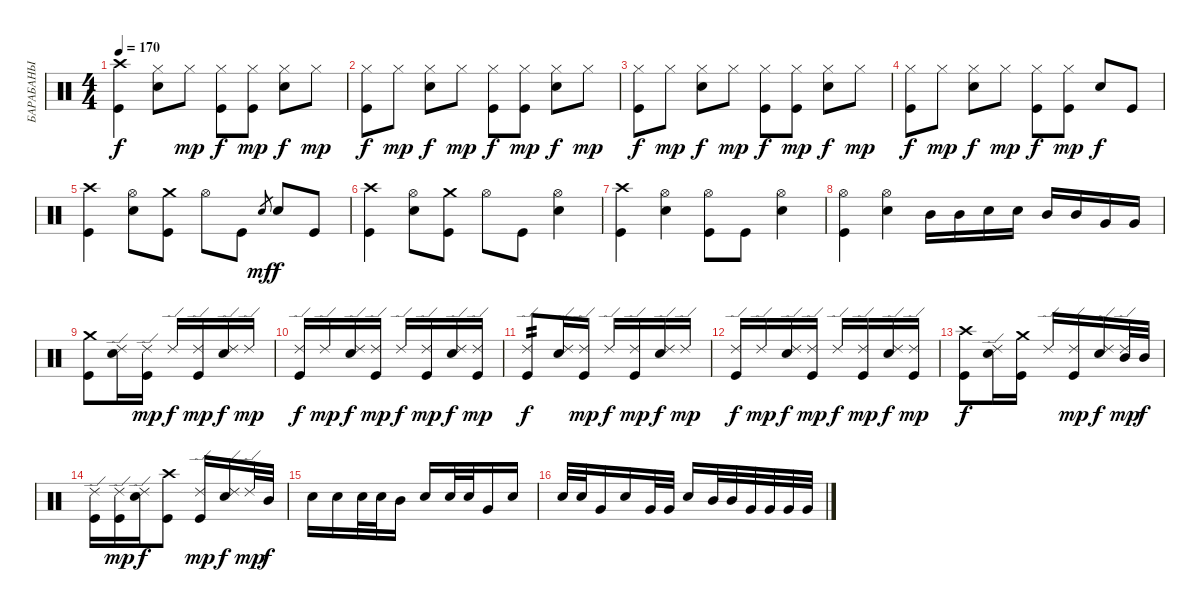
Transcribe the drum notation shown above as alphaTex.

\track ("БАРАБАНЫ" "БАРАБАНЫ") {instrument percussion}
\staff {score}
\articulation defaults
\ts (4 4)
\tempo 170
\clef neutral
\ks c
("Crash high (hit)" "Kick (hit)").4{dy f} ("Hi-Hat (closed)" "Electric Snare (hit)").8 "Hi-Hat (closed)".8{dy mp} ("Hi-Hat (closed)" "Kick (hit)").8{dy f} ("Hi-Hat (closed)" "Kick (hit)").8{dy mp} ("Hi-Hat (closed)" "Electric Snare (hit)").8{dy f} "Hi-Hat (closed)".8{dy mp} |
("Hi-Hat (closed)" "Kick (hit)").8{dy f} "Hi-Hat (closed)".8{dy mp} ("Hi-Hat (closed)" "Electric Snare (hit)").8{dy f} "Hi-Hat (closed)".8{dy mp} ("Hi-Hat (closed)" "Kick (hit)").8{dy f} ("Hi-Hat (closed)" "Kick (hit)").8{dy mp} ("Hi-Hat (closed)" "Electric Snare (hit)").8{dy f} "Hi-Hat (closed)".8{dy mp} |
("Hi-Hat (closed)" "Kick (hit)").8{dy f} "Hi-Hat (closed)".8{dy mp} ("Hi-Hat (closed)" "Electric Snare (hit)").8{dy f} "Hi-Hat (closed)".8{dy mp} ("Hi-Hat (closed)" "Kick (hit)").8{dy f} ("Hi-Hat (closed)" "Kick (hit)").8{dy mp} ("Hi-Hat (closed)" "Electric Snare (hit)").8{dy f} "Hi-Hat (closed)".8{dy mp} |
("Hi-Hat (closed)" "Kick (hit)").8{dy f} "Hi-Hat (closed)".8{dy mp} ("Hi-Hat (closed)" "Electric Snare (hit)").8{dy f} "Hi-Hat (closed)".8{dy mp} ("Hi-Hat (closed)" "Kick (hit)").8{dy f} ("Hi-Hat (closed)" "Kick (hit)").8{dy mp} "Electric Snare (hit)".8{dy f} "Kick (hit)".8 |
("Crash high (hit)" "Kick (hit)").4 ("Hi-Hat (open)" "Electric Snare (hit)").8 ("Crash medium (hit)" "Kick (hit)").8 "Hi-Hat (open)".8 "Kick (hit)".8 "Electric Snare (hit)".8{gr dy mf} "Electric Snare (hit)".8{dy f} "Kick (hit)".8 |
("Crash high (hit)" "Kick (hit)").4 ("Hi-Hat (open)" "Electric Snare (hit)").8 ("Crash medium (hit)" "Kick (hit)").8 "Hi-Hat (open)".8 "Kick (hit)".8 ("Hi-Hat (open)" "Electric Snare (hit)").4 |
("Crash high (hit)" "Kick (hit)").4 ("Hi-Hat (open)" "Electric Snare (hit)").4 ("Hi-Hat (open)" "Kick (hit)").8 "Kick (hit)".8 ("Hi-Hat (open)" "Electric Snare (hit)").4 |
("Hi-Hat (open)" "Kick (hit)").4 ("Hi-Hat (open)" "Electric Snare (hit)").4 "Mid Tom (hit)".16 "Mid Tom (hit)".16 "Electric Snare (hit)".16 "Electric Snare (hit)".16 "Mid Tom (hit)".16 "Mid Tom (hit)".16 "Very Low Tom (hit)".16 "Very Low Tom (hit)".16 |
("Crash medium (hit)" "Kick (hit)").8 ("Ride (edge) 2" "Electric Snare (hit)").16 ("Ride (edge) 2" "Kick (hit)").16{dy mp} "Ride (edge) 2".16{dy f} ("Ride (edge) 2" "Kick (hit)").16{dy mp} ("Ride (edge) 2" "Electric Snare (hit)").16{dy f} "Ride (edge) 2".16{dy mp} |
("Ride (edge) 2" "Kick (hit)").16{dy f} "Ride (edge) 2".16{dy mp} ("Ride (edge) 2" "Electric Snare (hit)").16{dy f} ("Ride (edge) 2" "Kick (hit)").16{dy mp} "Ride (edge) 2".16{dy f} ("Ride (edge) 2" "Kick (hit)").16{dy mp} ("Ride (edge) 2" "Electric Snare (hit)").16{dy f} ("Ride (edge) 2" "Kick (hit)").16{dy mp} |
("Ride (edge) 2" "Kick (hit)").8{tp 2 dy f} ("Ride (edge) 2" "Electric Snare (hit)").16 ("Ride (edge) 2" "Kick (hit)").16{dy mp} "Ride (edge) 2".16{dy f} ("Ride (edge) 2" "Kick (hit)").16{dy mp} ("Ride (edge) 2" "Electric Snare (hit)").16{dy f} "Ride (edge) 2".16{dy mp} |
("Ride (edge) 2" "Kick (hit)").16{dy f} "Ride (edge) 2".16{dy mp} ("Ride (edge) 2" "Electric Snare (hit)").16{dy f} ("Ride (edge) 2" "Kick (hit)").16{dy mp} "Ride (edge) 2".16{dy f} ("Ride (edge) 2" "Kick (hit)").16{dy mp} ("Ride (edge) 2" "Electric Snare (hit)").16{dy f} ("Ride (edge) 2" "Kick (hit)").16{dy mp} |
("Crash high (hit)" "Kick (hit)").8{dy f} ("Ride (edge) 2" "Electric Snare (hit)").16 ("Crash medium (hit)" "Kick (hit)").16 "Ride (edge) 2".16 ("Ride (edge) 2" "Kick (hit)").16{dy mp} ("Ride (edge) 2" "Electric Snare (hit)").16{dy f} ("Ride (edge) 2" "Mid Tom (hit)").32{dy mp} "Mid Tom (hit)".32{dy f} |
("Ride (edge) 2" "Kick (hit)").16 ("Ride (edge) 2" "Kick (hit)").16{dy mp} ("Ride (edge) 2" "Electric Snare (hit)").16{dy f} ("Crash high (hit)" "Kick (hit)").8 ("Ride (edge) 2" "Kick (hit)").16{dy mp} ("Ride (edge) 2" "Electric Snare (hit)").16{dy f} "Ride (edge) 2".32{dy mp} "Mid Tom (hit)".32{dy f} |
"Electric Snare (hit)".16 "Electric Snare (hit)".16 "Electric Snare (hit)".32 "Electric Snare (hit)".32 "Mid Tom (hit)".16 "Electric Snare (hit)".16 "Electric Snare (hit)".32 "Electric Snare (hit)".32 "Very Low Tom (hit)".16 "Electric Snare (hit)".16 |
"Electric Snare (hit)".32 "Electric Snare (hit)".32 "Very Low Tom (hit)".16 "Electric Snare (hit)".16 "Very Low Tom (hit)".32 "Very Low Tom (hit)".32 "Electric Snare (hit)".16 "Mid Tom (hit)".32 "Mid Tom (hit)".32 "Very Low Tom (hit)".32 "Very Low Tom (hit)".32 "Very Low Tom (hit)".32 "Very Low Tom (hit)".32
